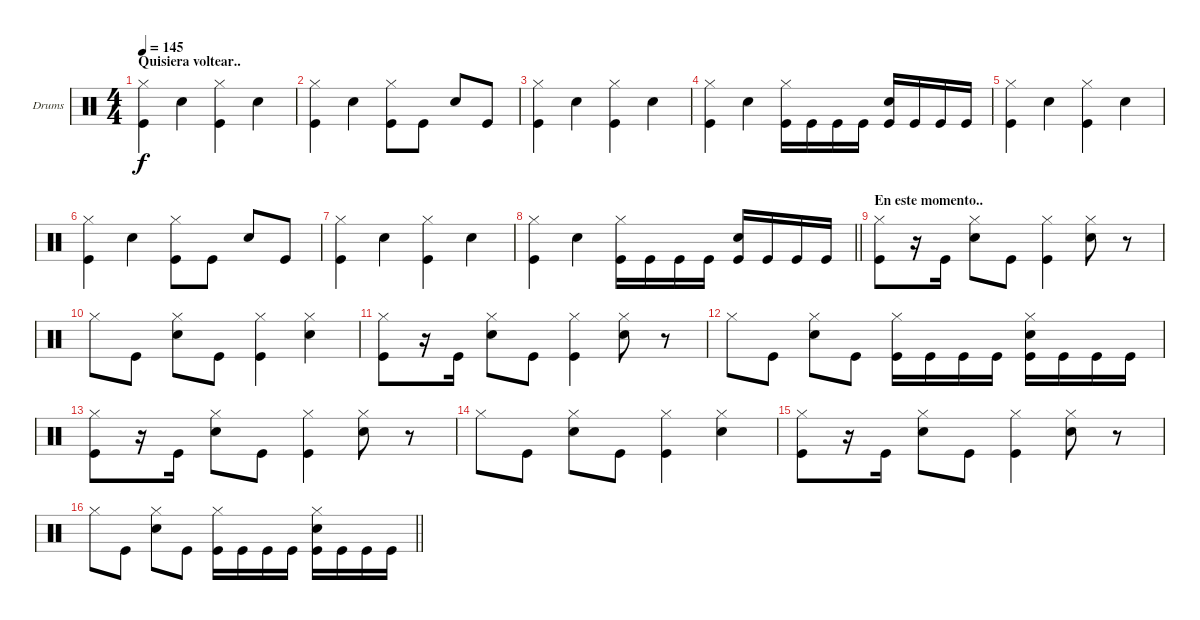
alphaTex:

\bracketExtendMode groupsimilarinstruments
\firstSystemTrackNameOrientation horizontal
\otherSystemsTrackNameOrientation horizontal
\track ("Drumkit" "Drums") {instrument percussion}
\staff {score}
\articulation defaults
\ts (4 4)
\section ("" "Quisiera voltear..")
\tempo 145
\clef neutral
\ks c
("Hi-Hat (closed)" "Kick (hit)").4{dy f} "Snare (hit) 2".4 ("Hi-Hat (closed)" "Kick (hit)").4 "Snare (hit) 2".4 |
("Hi-Hat (closed)" "Kick (hit)").4 "Snare (hit) 2".4 ("Hi-Hat (closed)" "Kick (hit)").8 "Kick (hit)".8 "Snare (hit) 2".8 "Kick (hit)".8 |
("Hi-Hat (closed)" "Kick (hit)").4 "Snare (hit) 2".4 ("Hi-Hat (closed)" "Kick (hit)").4 "Snare (hit) 2".4 |
("Hi-Hat (closed)" "Kick (hit)").4 "Snare (hit) 2".4 ("Hi-Hat (closed)" "Kick (hit)").16 "Kick (hit)".16 "Kick (hit)".16 "Kick (hit)".16 ("Snare (hit) 2" "Kick (hit)").16 "Kick (hit)".16 "Kick (hit)".16 "Kick (hit)".16 |
("Hi-Hat (closed)" "Kick (hit)").4 "Snare (hit) 2".4 ("Hi-Hat (closed)" "Kick (hit)").4 "Snare (hit) 2".4 |
("Hi-Hat (closed)" "Kick (hit)").4 "Snare (hit) 2".4 ("Hi-Hat (closed)" "Kick (hit)").8 "Kick (hit)".8 "Snare (hit) 2".8 "Kick (hit)".8 |
("Hi-Hat (closed)" "Kick (hit)").4 "Snare (hit) 2".4 ("Hi-Hat (closed)" "Kick (hit)").4 "Snare (hit) 2".4 |
\barLineRight lightlight
("Hi-Hat (closed)" "Kick (hit)").4 "Snare (hit) 2".4 ("Hi-Hat (closed)" "Kick (hit)").16 "Kick (hit)".16 "Kick (hit)".16 "Kick (hit)".16 ("Snare (hit) 2" "Kick (hit)").16 "Kick (hit)".16 "Kick (hit)".16 "Kick (hit)".16 |
\section ("" "En este momento..")
("Hi-Hat (closed)" "Kick (hit)").8 r.16 "Kick (hit)".16 ("Hi-Hat (closed)" "Snare (hit) 2").8 "Kick (hit)".8 ("Hi-Hat (closed)" "Kick (hit)").4 ("Hi-Hat (closed)" "Snare (hit) 2").8 r.8 |
"Hi-Hat (closed)".8 "Kick (hit)".8 ("Hi-Hat (closed)" "Snare (hit) 2").8 "Kick (hit)".8 ("Hi-Hat (closed)" "Kick (hit)").4 ("Hi-Hat (closed)" "Snare (hit) 2").4 |
("Hi-Hat (closed)" "Kick (hit)").8 r.16 "Kick (hit)".16 ("Hi-Hat (closed)" "Snare (hit) 2").8 "Kick (hit)".8 ("Hi-Hat (closed)" "Kick (hit)").4 ("Hi-Hat (closed)" "Snare (hit) 2").8 r.8 |
"Hi-Hat (closed)".8 "Kick (hit)".8 ("Hi-Hat (closed)" "Snare (hit) 2").8 "Kick (hit)".8 ("Hi-Hat (closed)" "Kick (hit)").16 "Kick (hit)".16 "Kick (hit)".16 "Kick (hit)".16 ("Hi-Hat (closed)" "Snare (hit) 2" "Kick (hit)").16 "Kick (hit)".16 "Kick (hit)".16 "Kick (hit)".16 |
("Hi-Hat (closed)" "Kick (hit)").8 r.16 "Kick (hit)".16 ("Hi-Hat (closed)" "Snare (hit) 2").8 "Kick (hit)".8 ("Hi-Hat (closed)" "Kick (hit)").4 ("Hi-Hat (closed)" "Snare (hit) 2").8 r.8 |
"Hi-Hat (closed)".8 "Kick (hit)".8 ("Hi-Hat (closed)" "Snare (hit) 2").8 "Kick (hit)".8 ("Hi-Hat (closed)" "Kick (hit)").4 ("Hi-Hat (closed)" "Snare (hit) 2").4 |
("Hi-Hat (closed)" "Kick (hit)").8 r.16 "Kick (hit)".16 ("Hi-Hat (closed)" "Snare (hit) 2").8 "Kick (hit)".8 ("Hi-Hat (closed)" "Kick (hit)").4 ("Hi-Hat (closed)" "Snare (hit) 2").8 r.8 |
\barLineRight lightlight "Hi-Hat (closed)".8 "Kick (hit)".8
("Hi-Hat (closed)" "Snare (hit) 2").8 "Kick (hit)".8 ("Hi-Hat (closed)" "Kick (hit)").16 "Kick (hit)".16 "Kick (hit)".16 "Kick (hit)".16 ("Hi-Hat (closed)" "Snare (hit) 2" "Kick (hit)").16 "Kick (hit)".16 "Kick (hit)".16 "Kick (hit)".16
